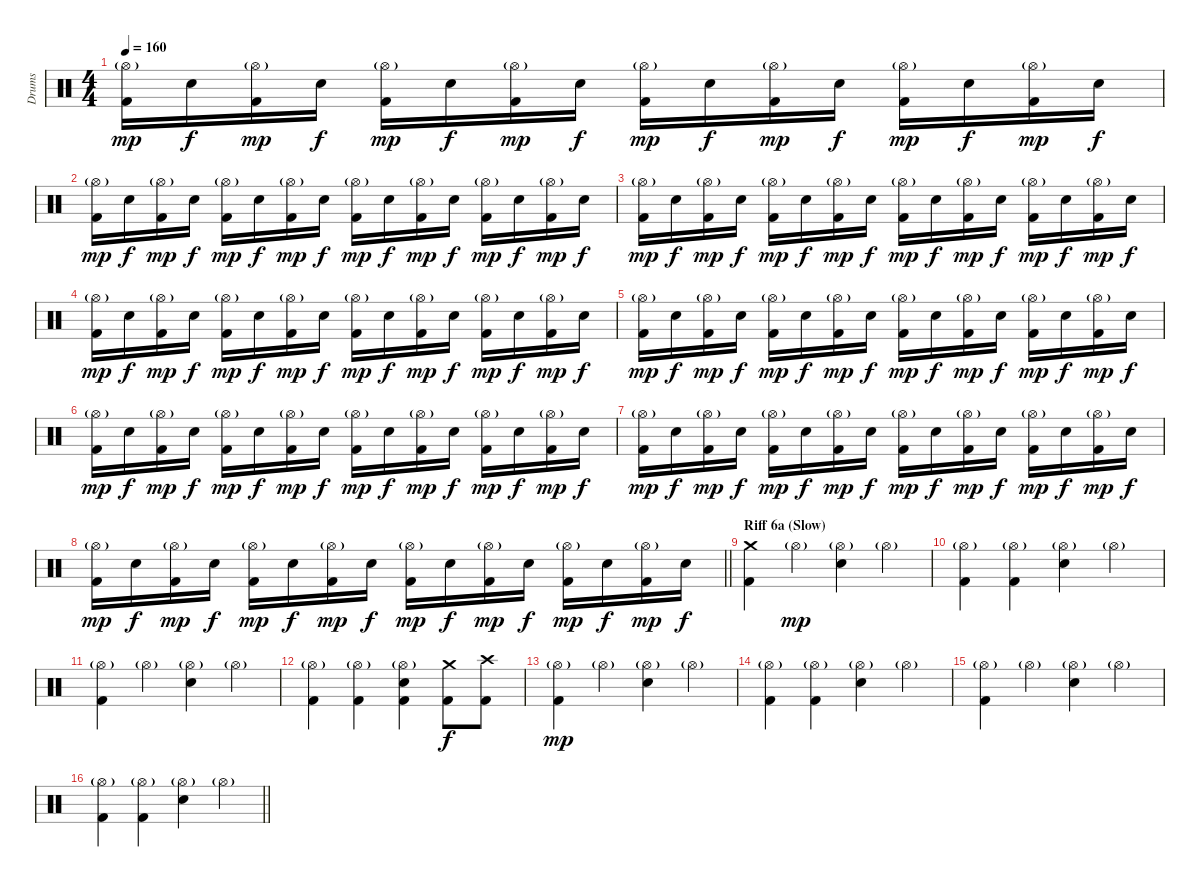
\track ("Drums" "Drums") {instrument percussion}
\staff {score}
\articulation defaults
\ts (4 4)
\tempo 160
\clef neutral
\ks c
("Hi-Hat (open)"{g} "Kick (hit) 2").16{dy mp} "Electric Snare (hit)".16{dy f} ("Hi-Hat (open)"{g} "Kick (hit) 2").16{dy mp} "Electric Snare (hit)".16{dy f} ("Hi-Hat (open)"{g} "Kick (hit) 2").16{dy mp} "Electric Snare (hit)".16{dy f} ("Hi-Hat (open)"{g} "Kick (hit) 2").16{dy mp} "Electric Snare (hit)".16{dy f} ("Hi-Hat (open)"{g} "Kick (hit) 2").16{dy mp} "Electric Snare (hit)".16{dy f} ("Hi-Hat (open)"{g} "Kick (hit) 2").16{dy mp} "Electric Snare (hit)".16{dy f} ("Hi-Hat (open)"{g} "Kick (hit) 2").16{dy mp} "Electric Snare (hit)".16{dy f} ("Hi-Hat (open)"{g} "Kick (hit) 2").16{dy mp} "Electric Snare (hit)".16{dy f} |
("Hi-Hat (open)"{g} "Kick (hit) 2").16{dy mp} "Electric Snare (hit)".16{dy f} ("Hi-Hat (open)"{g} "Kick (hit) 2").16{dy mp} "Electric Snare (hit)".16{dy f} ("Hi-Hat (open)"{g} "Kick (hit) 2").16{dy mp} "Electric Snare (hit)".16{dy f} ("Hi-Hat (open)"{g} "Kick (hit) 2").16{dy mp} "Electric Snare (hit)".16{dy f} ("Hi-Hat (open)"{g} "Kick (hit) 2").16{dy mp} "Electric Snare (hit)".16{dy f} ("Hi-Hat (open)"{g} "Kick (hit) 2").16{dy mp} "Electric Snare (hit)".16{dy f} ("Hi-Hat (open)"{g} "Kick (hit) 2").16{dy mp} "Electric Snare (hit)".16{dy f} ("Hi-Hat (open)"{g} "Kick (hit) 2").16{dy mp} "Electric Snare (hit)".16{dy f} |
("Hi-Hat (open)"{g} "Kick (hit) 2").16{dy mp} "Electric Snare (hit)".16{dy f} ("Hi-Hat (open)"{g} "Kick (hit) 2").16{dy mp} "Electric Snare (hit)".16{dy f} ("Hi-Hat (open)"{g} "Kick (hit) 2").16{dy mp} "Electric Snare (hit)".16{dy f} ("Hi-Hat (open)"{g} "Kick (hit) 2").16{dy mp} "Electric Snare (hit)".16{dy f} ("Hi-Hat (open)"{g} "Kick (hit) 2").16{dy mp} "Electric Snare (hit)".16{dy f} ("Hi-Hat (open)"{g} "Kick (hit) 2").16{dy mp} "Electric Snare (hit)".16{dy f} ("Hi-Hat (open)"{g} "Kick (hit) 2").16{dy mp} "Electric Snare (hit)".16{dy f} ("Hi-Hat (open)"{g} "Kick (hit) 2").16{dy mp} "Electric Snare (hit)".16{dy f} |
("Hi-Hat (open)"{g} "Kick (hit) 2").16{dy mp} "Electric Snare (hit)".16{dy f} ("Hi-Hat (open)"{g} "Kick (hit) 2").16{dy mp} "Electric Snare (hit)".16{dy f} ("Hi-Hat (open)"{g} "Kick (hit) 2").16{dy mp} "Electric Snare (hit)".16{dy f} ("Hi-Hat (open)"{g} "Kick (hit) 2").16{dy mp} "Electric Snare (hit)".16{dy f} ("Hi-Hat (open)"{g} "Kick (hit) 2").16{dy mp} "Electric Snare (hit)".16{dy f} ("Hi-Hat (open)"{g} "Kick (hit) 2").16{dy mp} "Electric Snare (hit)".16{dy f} ("Hi-Hat (open)"{g} "Kick (hit) 2").16{dy mp} "Electric Snare (hit)".16{dy f} ("Hi-Hat (open)"{g} "Kick (hit) 2").16{dy mp} "Electric Snare (hit)".16{dy f} |
("Hi-Hat (open)"{g} "Kick (hit) 2").16{dy mp} "Electric Snare (hit)".16{dy f} ("Hi-Hat (open)"{g} "Kick (hit) 2").16{dy mp} "Electric Snare (hit)".16{dy f} ("Hi-Hat (open)"{g} "Kick (hit) 2").16{dy mp} "Electric Snare (hit)".16{dy f} ("Hi-Hat (open)"{g} "Kick (hit) 2").16{dy mp} "Electric Snare (hit)".16{dy f} ("Hi-Hat (open)"{g} "Kick (hit) 2").16{dy mp} "Electric Snare (hit)".16{dy f} ("Hi-Hat (open)"{g} "Kick (hit) 2").16{dy mp} "Electric Snare (hit)".16{dy f} ("Hi-Hat (open)"{g} "Kick (hit) 2").16{dy mp} "Electric Snare (hit)".16{dy f} ("Hi-Hat (open)"{g} "Kick (hit) 2").16{dy mp} "Electric Snare (hit)".16{dy f} |
("Hi-Hat (open)"{g} "Kick (hit) 2").16{dy mp} "Electric Snare (hit)".16{dy f} ("Hi-Hat (open)"{g} "Kick (hit) 2").16{dy mp} "Electric Snare (hit)".16{dy f} ("Hi-Hat (open)"{g} "Kick (hit) 2").16{dy mp} "Electric Snare (hit)".16{dy f} ("Hi-Hat (open)"{g} "Kick (hit) 2").16{dy mp} "Electric Snare (hit)".16{dy f} ("Hi-Hat (open)"{g} "Kick (hit) 2").16{dy mp} "Electric Snare (hit)".16{dy f} ("Hi-Hat (open)"{g} "Kick (hit) 2").16{dy mp} "Electric Snare (hit)".16{dy f} ("Hi-Hat (open)"{g} "Kick (hit) 2").16{dy mp} "Electric Snare (hit)".16{dy f} ("Hi-Hat (open)"{g} "Kick (hit) 2").16{dy mp} "Electric Snare (hit)".16{dy f} |
("Hi-Hat (open)"{g} "Kick (hit) 2").16{dy mp} "Electric Snare (hit)".16{dy f} ("Hi-Hat (open)"{g} "Kick (hit) 2").16{dy mp} "Electric Snare (hit)".16{dy f} ("Hi-Hat (open)"{g} "Kick (hit) 2").16{dy mp} "Electric Snare (hit)".16{dy f} ("Hi-Hat (open)"{g} "Kick (hit) 2").16{dy mp} "Electric Snare (hit)".16{dy f} ("Hi-Hat (open)"{g} "Kick (hit) 2").16{dy mp} "Electric Snare (hit)".16{dy f} ("Hi-Hat (open)"{g} "Kick (hit) 2").16{dy mp} "Electric Snare (hit)".16{dy f} ("Hi-Hat (open)"{g} "Kick (hit) 2").16{dy mp} "Electric Snare (hit)".16{dy f} ("Hi-Hat (open)"{g} "Kick (hit) 2").16{dy mp} "Electric Snare (hit)".16{dy f} |
\barLineRight lightlight
("Hi-Hat (open)"{g} "Kick (hit) 2").16{dy mp} "Electric Snare (hit)".16{dy f} ("Hi-Hat (open)"{g} "Kick (hit) 2").16{dy mp} "Electric Snare (hit)".16{dy f} ("Hi-Hat (open)"{g} "Kick (hit) 2").16{dy mp} "Electric Snare (hit)".16{dy f} ("Hi-Hat (open)"{g} "Kick (hit) 2").16{dy mp} "Electric Snare (hit)".16{dy f} ("Hi-Hat (open)"{g} "Kick (hit) 2").16{dy mp} "Electric Snare (hit)".16{dy f} ("Hi-Hat (open)"{g} "Kick (hit) 2").16{dy mp} "Electric Snare (hit)".16{dy f} ("Hi-Hat (open)"{g} "Kick (hit) 2").16{dy mp} "Electric Snare (hit)".16{dy f} ("Hi-Hat (open)"{g} "Kick (hit) 2").16{dy mp} "Electric Snare (hit)".16{dy f} |
\section ("" "Riff 6a (Slow)")
("Crash medium (hit)" "Kick (hit) 2").4 "Hi-Hat (open)"{g}.4{dy mp} ("Hi-Hat (open)"{g} "Electric Snare (hit)").4 "Hi-Hat (open)"{g}.4 |
("Hi-Hat (open)"{g} "Kick (hit) 2").4 ("Hi-Hat (open)"{g} "Kick (hit) 2").4 ("Hi-Hat (open)"{g} "Electric Snare (hit)").4 "Hi-Hat (open)"{g}.4 |
("Hi-Hat (open)"{g} "Kick (hit) 2").4 "Hi-Hat (open)"{g}.4 ("Hi-Hat (open)"{g} "Electric Snare (hit)").4 "Hi-Hat (open)"{g}.4 |
("Hi-Hat (open)"{g} "Kick (hit) 2").4 ("Hi-Hat (open)"{g} "Kick (hit) 2").4 ("Hi-Hat (open)"{g} "Electric Snare (hit)" "Kick (hit) 2").4 ("Crash medium (hit)" "Kick (hit) 2").8{dy f} ("Crash high (hit)" "Kick (hit) 2").8 |
("Hi-Hat (open)"{g} "Kick (hit) 2").4{dy mp} "Hi-Hat (open)"{g}.4 ("Hi-Hat (open)"{g} "Electric Snare (hit)").4 "Hi-Hat (open)"{g}.4 |
("Hi-Hat (open)"{g} "Kick (hit) 2").4 ("Hi-Hat (open)"{g} "Kick (hit) 2").4 ("Hi-Hat (open)"{g} "Electric Snare (hit)").4 "Hi-Hat (open)"{g}.4 |
("Hi-Hat (open)"{g} "Kick (hit) 2").4 "Hi-Hat (open)"{g}.4 ("Hi-Hat (open)"{g} "Electric Snare (hit)").4 "Hi-Hat (open)"{g}.4 |
\barLineRight lightlight
("Hi-Hat (open)"{g} "Kick (hit) 2").4 ("Hi-Hat (open)"{g} "Kick (hit) 2").4 ("Hi-Hat (open)"{g} "Electric Snare (hit)").4 "Hi-Hat (open)"{g}.4
